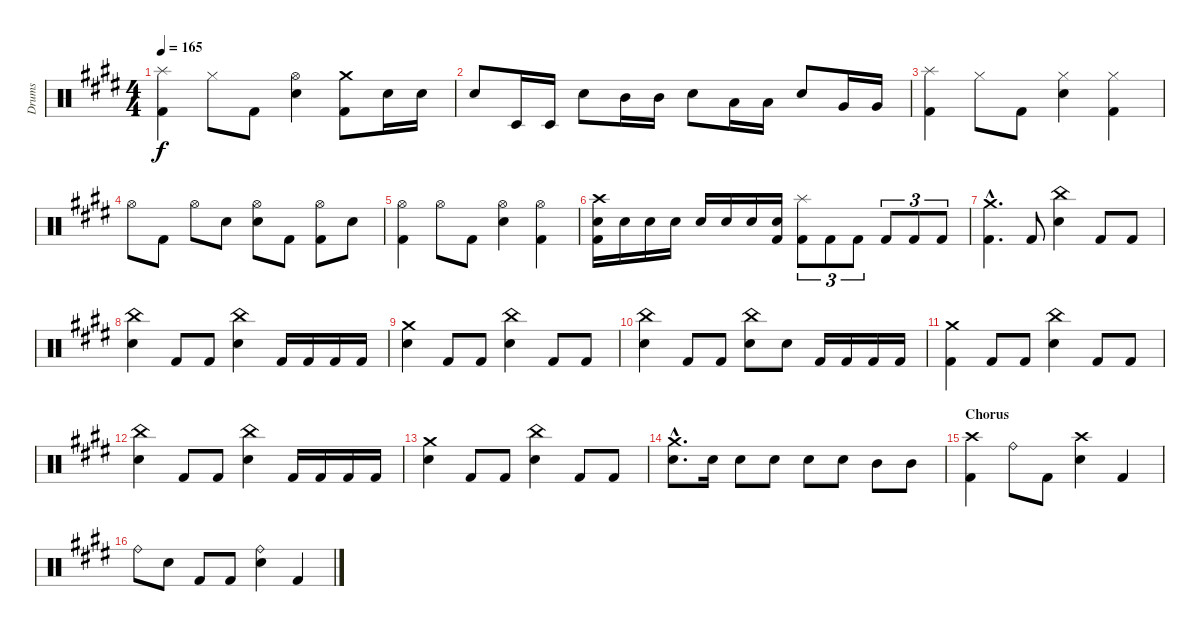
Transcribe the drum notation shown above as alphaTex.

\track ("Drums" "Drums") {instrument percussion}
\staff {score}
\articulation defaults
\ts (4 4)
\tempo 165
\clef neutral
\ks e
("Splash (hit)" "Kick (hit) 2").4{dy f} "Hi-Hat (closed)".8 "Kick (hit) 2".8 ("Electric Snare (hit)" "Hi-Hat (open)").4 ("Kick (hit) 2" "Crash medium (hit)").8 "Electric Snare (hit)".16 "Electric Snare (hit)".16 |
"Electric Snare (hit)".8 "Timbale low (hit)".16 "Timbale low (hit)".16 "Electric Snare (hit)".8 "Mid Tom (hit)".16 "Mid Tom (hit)".16 "Electric Snare (hit)".8 "Low Tom (hit)".16 "Low Tom (hit)".16 "Electric Snare (hit)".8 "Very Low Tom (hit)".16 "Very Low Tom (hit)".16 |
("Splash (hit)" "Kick (hit) 2").4 "Hi-Hat (closed)".8 "Kick (hit) 2".8 ("Electric Snare (hit)" "Hi-Hat (closed)").4 ("Kick (hit) 2" "Hi-Hat (closed)").4 |
"Hi-Hat (open)".8 "Kick (hit) 2".8 "Hi-Hat (open)".8 "Electric Snare (hit)".8 ("Hi-Hat (open)" "Electric Snare (hit)").8 "Kick (hit) 2".8 ("Hi-Hat (open)" "Kick (hit) 2").8 "Electric Snare (hit)".8 |
("Kick (hit) 2" "Hi-Hat (open)").4 "Hi-Hat (open)".8 "Kick (hit) 2".8 ("Electric Snare (hit)" "Hi-Hat (open)").4 ("Kick (hit) 2" "Hi-Hat (open)").4 |
("Crash high (hit)" "Electric Snare (hit)" "Kick (hit) 2").16 "Electric Snare (hit)".16 "Electric Snare (hit)".16 "Electric Snare (hit)".16 "Electric Snare (hit)".16 "Electric Snare (hit)".16 "Electric Snare (hit)".16 ("Electric Snare (hit)" "Kick (hit) 2").16 ("Splash (hit)" "Kick (hit) 2").8{tu (3 2)} "Kick (hit) 2".8{tu (3 2)} "Kick (hit) 2".8{tu (3 2)} "Kick (hit) 2".8{tu (3 2)} "Kick (hit) 2".8{tu (3 2)} "Kick (hit) 2".8{tu (3 2)} |
("Crash medium (hit)"{hac} "Kick (hit) 2"{hac}).4{d} "Kick (hit) 2".8 ("Electric Snare (hit)" "China (hit)").4 "Kick (hit) 2".8 "Kick (hit) 2".8 |
("Electric Snare (hit)" "China (hit)").4 "Kick (hit) 2".8 "Kick (hit) 2".8 ("Electric Snare (hit)" "China (hit)").4 "Kick (hit) 2".16 "Kick (hit) 2".16 "Kick (hit) 2".16 "Kick (hit) 2".16 |
("Crash medium (hit)" "Electric Snare (hit)").4 "Kick (hit) 2".8 "Kick (hit) 2".8 ("Electric Snare (hit)" "China (hit)").4 "Kick (hit) 2".8 "Kick (hit) 2".8 |
("Electric Snare (hit)" "China (hit)").4 "Kick (hit) 2".8 "Kick (hit) 2".8 ("Electric Snare (hit)" "China (hit)").8 "Electric Snare (hit)".8 "Kick (hit) 2".16 "Kick (hit) 2".16 "Kick (hit) 2".16 "Kick (hit) 2".16 |
("Kick (hit) 2" "Crash medium (hit)").4 "Kick (hit) 2".8 "Kick (hit) 2".8 ("Electric Snare (hit)" "China (hit)").4 "Kick (hit) 2".8 "Kick (hit) 2".8 |
("China (hit)" "Electric Snare (hit)").4 "Kick (hit) 2".8 "Kick (hit) 2".8 ("Electric Snare (hit)" "China (hit)").4 "Kick (hit) 2".16 "Kick (hit) 2".16 "Kick (hit) 2".16 "Kick (hit) 2".16 |
("Electric Snare (hit)" "Crash medium (hit)").4 "Kick (hit) 2".8 "Kick (hit) 2".8 ("Electric Snare (hit)" "China (hit)").4 "Kick (hit) 2".8 "Kick (hit) 2".8 |
("Crash medium (hit)"{hac} "Electric Snare (hit)"{hac}).8{d} "Electric Snare (hit)".16 "Electric Snare (hit)".8 "Electric Snare (hit)".8 "Electric Snare (hit)".8 "Electric Snare (hit)".8 "Mid Tom (hit)".8 "Mid Tom (hit)".8 |
\section ("" "Chorus")
("Kick (hit) 2" "Crash high (hit)").4 "Ride (bell)".8 "Kick (hit) 2".8 ("Electric Snare (hit)" "Crash high (hit)").4 "Kick (hit) 2".4 |
"Ride (bell)".8 "Electric Snare (hit)".8 "Kick (hit) 2".8 "Kick (hit) 2".8 ("Electric Snare (hit)" "Ride (bell)").4 "Kick (hit) 2".4
